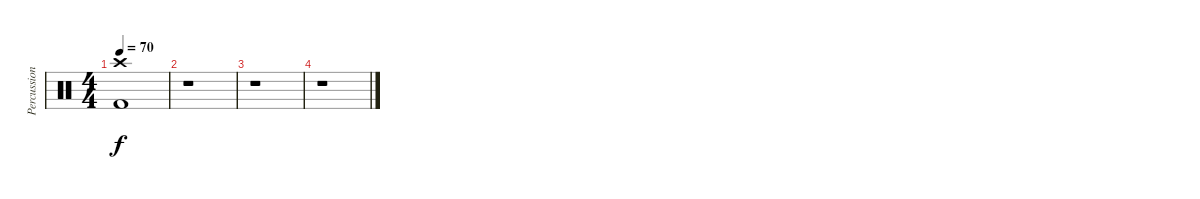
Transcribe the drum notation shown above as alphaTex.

\track ("Percussion" "Percussion") {instrument percussion}
\staff {score}
\articulation defaults
\ts (4 4)
\tempo 70
\clef neutral
\ks c
("Crash high (hit)" "Kick (hit) 2").1{dy f} |
r.1 |
r.1 |
r.1
